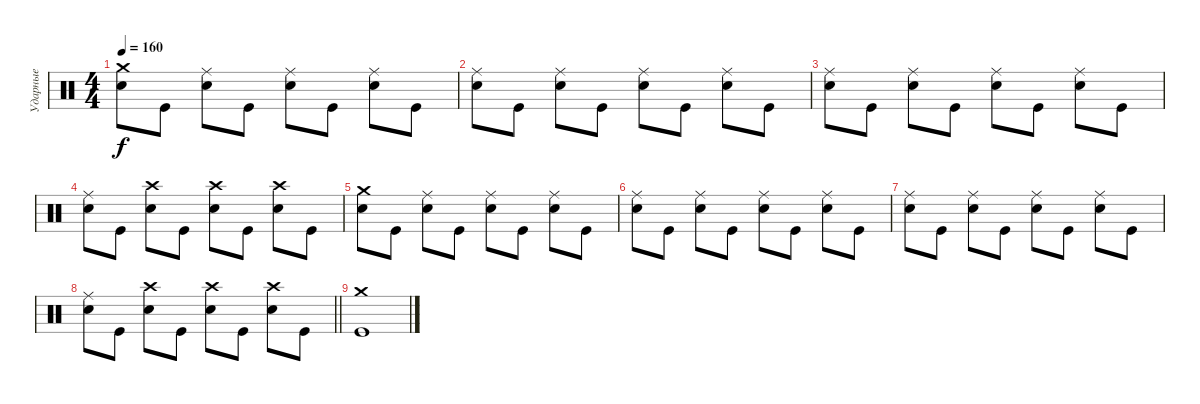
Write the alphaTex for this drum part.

\track ("Ударные" "Ударные") {instrument percussion}
\staff {score}
\articulation defaults
\ts (4 4)
\section ("" " ")
\tempo 160
\clef neutral
\ks c
("Crash medium (hit)" "Electric Snare (hit)").8{dy f} "Kick (hit)".8 ("Ride (middle)" "Electric Snare (hit)").8 "Kick (hit)".8 ("Ride (middle)" "Electric Snare (hit)").8 "Kick (hit)".8 ("Ride (middle)" "Electric Snare (hit)").8 "Kick (hit)".8 |
("Ride (middle)" "Electric Snare (hit)").8 "Kick (hit)".8 ("Ride (middle)" "Electric Snare (hit)").8 "Kick (hit)".8 ("Ride (middle)" "Electric Snare (hit)").8 "Kick (hit)".8 ("Ride (middle)" "Electric Snare (hit)").8 "Kick (hit)".8 |
("Ride (middle)" "Electric Snare (hit)").8 "Kick (hit)".8 ("Ride (middle)" "Electric Snare (hit)").8 "Kick (hit)".8 ("Ride (middle)" "Electric Snare (hit)").8 "Kick (hit)".8 ("Ride (middle)" "Electric Snare (hit)").8 "Kick (hit)".8 |
("Ride (middle)" "Electric Snare (hit)").8 "Kick (hit)".8 ("Crash high (hit)" "Electric Snare (hit)").8 "Kick (hit)".8 ("Crash high (hit)" "Electric Snare (hit)").8 "Kick (hit)".8 ("Crash high (hit)" "Electric Snare (hit)").8 "Kick (hit)".8 |
("Crash medium (hit)" "Electric Snare (hit)").8 "Kick (hit)".8 ("Ride (middle)" "Electric Snare (hit)").8 "Kick (hit)".8 ("Ride (middle)" "Electric Snare (hit)").8 "Kick (hit)".8 ("Ride (middle)" "Electric Snare (hit)").8 "Kick (hit)".8 |
("Ride (middle)" "Electric Snare (hit)").8 "Kick (hit)".8 ("Ride (middle)" "Electric Snare (hit)").8 "Kick (hit)".8 ("Ride (middle)" "Electric Snare (hit)").8 "Kick (hit)".8 ("Ride (middle)" "Electric Snare (hit)").8 "Kick (hit)".8 |
("Ride (middle)" "Electric Snare (hit)").8 "Kick (hit)".8 ("Ride (middle)" "Electric Snare (hit)").8 "Kick (hit)".8 ("Ride (middle)" "Electric Snare (hit)").8 "Kick (hit)".8 ("Ride (middle)" "Electric Snare (hit)").8 "Kick (hit)".8 |
\barLineRight lightlight
("Ride (middle)" "Electric Snare (hit)").8 "Kick (hit)".8 ("Crash high (hit)" "Electric Snare (hit)").8 "Kick (hit)".8 ("Crash high (hit)" "Electric Snare (hit)").8 "Kick (hit)".8 ("Crash high (hit)" "Electric Snare (hit)").8 "Kick (hit)".8 |
\section ("" " ")
("Crash medium (hit)" "Kick (hit)").1
